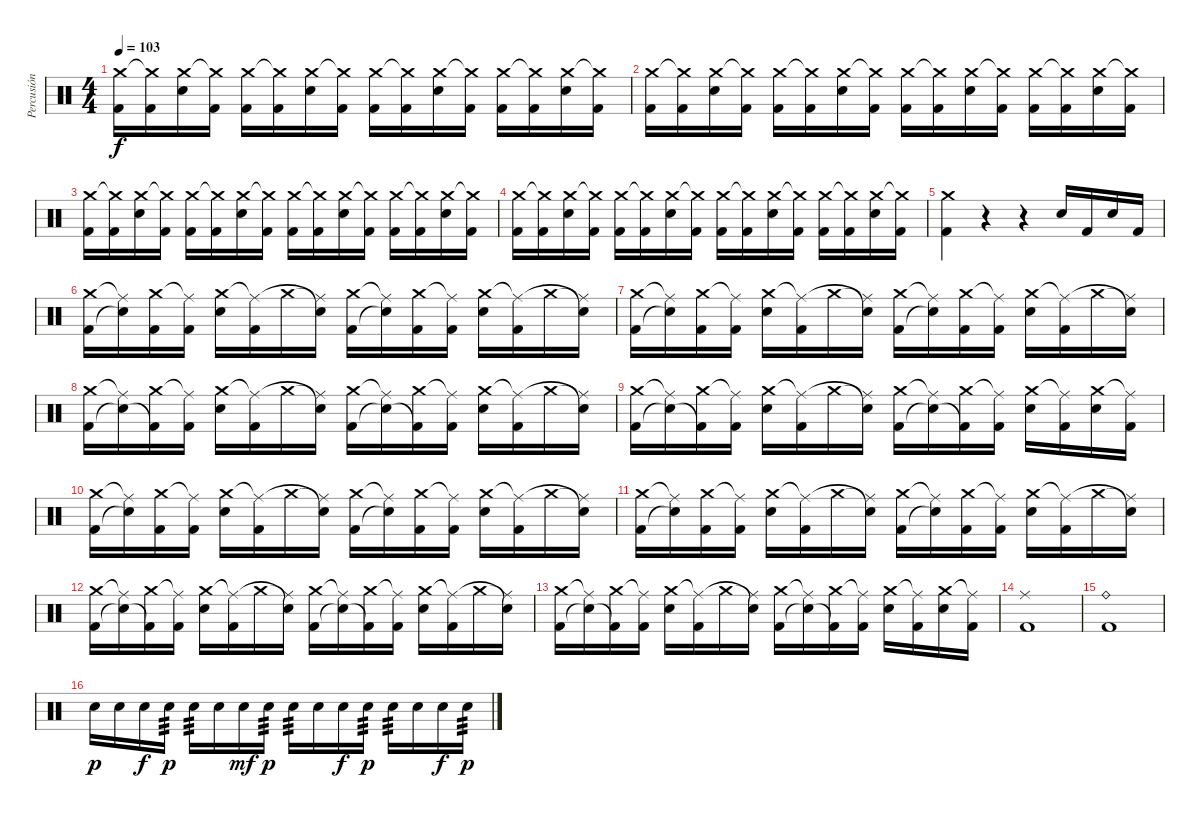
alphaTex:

\track ("Percusión" "Percusión") {instrument percussion}
\staff {score}
\articulation defaults
\ts (4 4)
\tempo 103
\clef neutral
\ks c
("Kick (hit) 2" "Crash medium (hit)").16{dy f} ("Kick (hit) 2" "Crash medium (hit)"{t}).16 ("Electric Snare (hit)" "Crash medium (hit)").16 ("Kick (hit) 2" "Crash medium (hit)"{t}).16 ("Kick (hit) 2" "Crash medium (hit)").16 ("Kick (hit) 2" "Crash medium (hit)"{t}).16 ("Electric Snare (hit)" "Crash medium (hit)").16 ("Kick (hit) 2" "Crash medium (hit)"{t}).16 ("Kick (hit) 2" "Crash medium (hit)").16 ("Kick (hit) 2" "Crash medium (hit)"{t}).16 ("Electric Snare (hit)" "Crash medium (hit)").16 ("Kick (hit) 2" "Crash medium (hit)"{t}).16 ("Kick (hit) 2" "Crash medium (hit)").16 ("Kick (hit) 2" "Crash medium (hit)"{t}).16 ("Electric Snare (hit)" "Crash medium (hit)").16 ("Kick (hit) 2" "Crash medium (hit)"{t}).16 |
("Kick (hit) 2" "Crash medium (hit)").16 ("Kick (hit) 2" "Crash medium (hit)"{t}).16 ("Electric Snare (hit)" "Crash medium (hit)").16 ("Kick (hit) 2" "Crash medium (hit)"{t}).16 ("Kick (hit) 2" "Crash medium (hit)").16 ("Kick (hit) 2" "Crash medium (hit)"{t}).16 ("Electric Snare (hit)" "Crash medium (hit)").16 ("Kick (hit) 2" "Crash medium (hit)"{t}).16 ("Kick (hit) 2" "Crash medium (hit)").16 ("Kick (hit) 2" "Crash medium (hit)"{t}).16 ("Electric Snare (hit)" "Crash medium (hit)").16 ("Kick (hit) 2" "Crash medium (hit)"{t}).16 ("Kick (hit) 2" "Crash medium (hit)").16 ("Kick (hit) 2" "Crash medium (hit)"{t}).16 ("Electric Snare (hit)" "Crash medium (hit)").16 ("Kick (hit) 2" "Crash medium (hit)"{t}).16 |
("Kick (hit) 2" "Crash medium (hit)").16 ("Kick (hit) 2" "Crash medium (hit)"{t}).16 ("Electric Snare (hit)" "Crash medium (hit)").16 ("Kick (hit) 2" "Crash medium (hit)"{t}).16 ("Kick (hit) 2" "Crash medium (hit)").16 ("Kick (hit) 2" "Crash medium (hit)"{t}).16 ("Electric Snare (hit)" "Crash medium (hit)").16 ("Kick (hit) 2" "Crash medium (hit)"{t}).16 ("Kick (hit) 2" "Crash medium (hit)").16 ("Kick (hit) 2" "Crash medium (hit)"{t}).16 ("Electric Snare (hit)" "Crash medium (hit)").16 ("Kick (hit) 2" "Crash medium (hit)"{t}).16 ("Kick (hit) 2" "Crash medium (hit)").16 ("Kick (hit) 2" "Crash medium (hit)"{t}).16 ("Electric Snare (hit)" "Crash medium (hit)").16 ("Kick (hit) 2" "Crash medium (hit)"{t}).16 |
("Kick (hit) 2" "Crash medium (hit)").16 ("Kick (hit) 2" "Crash medium (hit)"{t}).16 ("Electric Snare (hit)" "Crash medium (hit)").16 ("Kick (hit) 2" "Crash medium (hit)"{t}).16 ("Kick (hit) 2" "Crash medium (hit)").16 ("Kick (hit) 2" "Crash medium (hit)"{t}).16 ("Electric Snare (hit)" "Crash medium (hit)").16 ("Kick (hit) 2" "Crash medium (hit)"{t}).16 ("Kick (hit) 2" "Crash medium (hit)").16 ("Kick (hit) 2" "Crash medium (hit)"{t}).16 ("Electric Snare (hit)" "Crash medium (hit)").16 ("Kick (hit) 2" "Crash medium (hit)"{t}).16 ("Kick (hit) 2" "Crash medium (hit)").16 ("Kick (hit) 2" "Crash medium (hit)"{t}).16 ("Electric Snare (hit)" "Crash medium (hit)").16 ("Kick (hit) 2" "Crash medium (hit)"{t}).16 |
("Crash medium (hit)" "Kick (hit) 2").4 r.4 r.4 "Electric Snare (hit)".16 "Kick (hit) 2".16 "Snare (hit) 2".16 "Kick (hit) 2".16 |
("Kick (hit) 2" "Crash medium (hit)").16 ("Snare (hit)"{t} "Ride (middle)"{t}).16 ("Kick (hit) 2" "Crash medium (hit)").16 ("Kick (hit) 2" "Ride (middle)"{t}).16 ("Electric Snare (hit)" "Crash medium (hit)").16 ("Kick (hit) 2" "Ride (middle)"{t}).16 "Crash medium (hit)".16 ("Snare (hit)"{t} "Ride (middle)"{t}).16 ("Kick (hit) 2" "Crash medium (hit)").16 ("Snare (hit)"{t} "Ride (middle)"{t}).16 ("Kick (hit) 2" "Crash medium (hit)").16 ("Kick (hit) 2" "Ride (middle)"{t}).16 ("Electric Snare (hit)" "Crash medium (hit)").16 ("Kick (hit) 2" "Ride (middle)"{t}).16 "Crash medium (hit)".16 ("Snare (hit)"{t} "Ride (middle)"{t}).16 |
("Kick (hit) 2" "Crash medium (hit)").16 ("Snare (hit)"{t} "Ride (middle)"{t}).16 ("Kick (hit) 2" "Crash medium (hit)").16 ("Kick (hit) 2" "Ride (middle)"{t}).16 ("Electric Snare (hit)" "Crash medium (hit)").16 ("Kick (hit) 2" "Ride (middle)"{t}).16 "Crash medium (hit)".16 ("Snare (hit)"{t} "Ride (middle)"{t}).16 ("Kick (hit) 2" "Crash medium (hit)").16 ("Snare (hit)"{t} "Ride (middle)"{t}).16 ("Kick (hit) 2" "Crash medium (hit)").16 ("Kick (hit) 2" "Ride (middle)"{t}).16 ("Electric Snare (hit)" "Crash medium (hit)").16 ("Kick (hit) 2" "Ride (middle)"{t}).16 "Crash medium (hit)".16 ("Snare (hit)"{t} "Ride (middle)"{t}).16 |
("Kick (hit) 2" "Crash medium (hit)").16 ("Snare (hit)"{t} "Ride (middle)"{t}).16 ("Kick (hit) 2"{t} "Crash medium (hit)").16 ("Kick (hit) 2" "Ride (middle)"{t}).16 ("Electric Snare (hit)" "Crash medium (hit)").16 ("Kick (hit) 2" "Ride (middle)"{t}).16 "Crash medium (hit)".16 ("Snare (hit)"{t} "Ride (middle)"{t}).16 ("Kick (hit) 2" "Crash medium (hit)").16 ("Snare (hit)"{t} "Ride (middle)"{t}).16 ("Kick (hit) 2"{t} "Crash medium (hit)").16 ("Kick (hit) 2" "Ride (middle)"{t}).16 ("Electric Snare (hit)" "Crash medium (hit)").16 ("Kick (hit) 2" "Ride (middle)"{t}).16 "Crash medium (hit)".16 ("Snare (hit)"{t} "Ride (middle)"{t}).16 |
("Kick (hit) 2" "Crash medium (hit)").16 ("Snare (hit)"{t} "Ride (middle)"{t}).16 ("Kick (hit) 2"{t} "Crash medium (hit)").16 ("Kick (hit) 2" "Ride (middle)"{t}).16 ("Electric Snare (hit)" "Crash medium (hit)").16 ("Kick (hit) 2" "Ride (middle)"{t}).16 "Crash medium (hit)".16 ("Snare (hit)"{t} "Ride (middle)"{t}).16 ("Kick (hit) 2" "Crash medium (hit)").16 ("Snare (hit)"{t} "Ride (middle)"{t}).16 ("Kick (hit) 2"{t} "Crash medium (hit)").16 ("Kick (hit) 2" "Ride (middle)"{t}).16 ("Electric Snare (hit)" "Crash medium (hit)").16 ("Kick (hit) 2" "Ride (middle)"{t}).16 ("Electric Snare (hit)" "Crash medium (hit)").16 ("Kick (hit) 2" "Ride (middle)"{t}).16 |
("Kick (hit) 2" "Crash medium (hit)").16 ("Snare (hit)"{t} "Ride (middle)"{t}).16 ("Kick (hit) 2" "Crash medium (hit)").16 ("Kick (hit) 2" "Ride (middle)"{t}).16 ("Electric Snare (hit)" "Crash medium (hit)").16 ("Kick (hit) 2" "Ride (middle)"{t}).16 "Crash medium (hit)".16 ("Snare (hit)"{t} "Ride (middle)"{t}).16 ("Kick (hit) 2" "Crash medium (hit)").16 ("Snare (hit)"{t} "Ride (middle)"{t}).16 ("Kick (hit) 2" "Crash medium (hit)").16 ("Kick (hit) 2" "Ride (middle)"{t}).16 ("Electric Snare (hit)" "Crash medium (hit)").16 ("Kick (hit) 2" "Ride (middle)"{t}).16 "Crash medium (hit)".16 ("Snare (hit)"{t} "Ride (middle)"{t}).16 |
("Kick (hit) 2" "Crash medium (hit)").16 ("Snare (hit)"{t} "Ride (middle)"{t}).16 ("Kick (hit) 2" "Crash medium (hit)").16 ("Kick (hit) 2" "Ride (middle)"{t}).16 ("Electric Snare (hit)" "Crash medium (hit)").16 ("Kick (hit) 2" "Ride (middle)"{t}).16 "Crash medium (hit)".16 ("Snare (hit)"{t} "Ride (middle)"{t}).16 ("Kick (hit) 2" "Crash medium (hit)").16 ("Snare (hit)"{t} "Ride (middle)"{t}).16 ("Kick (hit) 2" "Crash medium (hit)").16 ("Kick (hit) 2" "Ride (middle)"{t}).16 ("Electric Snare (hit)" "Crash medium (hit)").16 ("Kick (hit) 2" "Ride (middle)"{t}).16 "Crash medium (hit)".16 ("Snare (hit)"{t} "Ride (middle)"{t}).16 |
("Kick (hit) 2" "Crash medium (hit)").16 ("Snare (hit)"{t} "Ride (middle)"{t}).16 ("Kick (hit) 2"{t} "Crash medium (hit)").16 ("Kick (hit) 2" "Ride (middle)"{t}).16 ("Electric Snare (hit)" "Crash medium (hit)").16 ("Kick (hit) 2" "Ride (middle)"{t}).16 "Crash medium (hit)".16 ("Snare (hit)"{t} "Ride (middle)"{t}).16 ("Kick (hit) 2" "Crash medium (hit)").16 ("Snare (hit)"{t} "Ride (middle)"{t}).16 ("Kick (hit) 2"{t} "Crash medium (hit)").16 ("Kick (hit) 2" "Ride (middle)"{t}).16 ("Electric Snare (hit)" "Crash medium (hit)").16 ("Kick (hit) 2" "Ride (middle)"{t}).16 "Crash medium (hit)".16 ("Snare (hit)"{t} "Ride (middle)"{t}).16 |
("Kick (hit) 2" "Crash medium (hit)").16 ("Snare (hit)"{t} "Ride (middle)"{t}).16 ("Kick (hit) 2"{t} "Crash medium (hit)").16 ("Kick (hit) 2" "Ride (middle)"{t}).16 ("Electric Snare (hit)" "Crash medium (hit)").16 ("Kick (hit) 2" "Ride (middle)"{t}).16 "Crash medium (hit)".16 ("Snare (hit)"{t} "Ride (middle)"{t}).16 ("Kick (hit) 2" "Crash medium (hit)").16 ("Snare (hit)"{t} "Ride (middle)"{t}).16 ("Kick (hit) 2"{t} "Crash medium (hit)").16 ("Kick (hit) 2" "Ride (middle)"{t}).16 ("Electric Snare (hit)" "Crash medium (hit)").16 ("Kick (hit) 2" "Ride (middle)"{t}).16 ("Electric Snare (hit)" "Crash medium (hit)").16 ("Kick (hit) 2" "Ride (middle)"{t}).16 |
("Ride (middle)" "Kick (hit) 2").1 |
("Ride (bell)" "Kick (hit) 2").1 |
"Electric Snare (hit)".16{dy p} "Electric Snare (hit)".16 "Electric Snare (hit)".16{dy f} "Electric Snare (hit)".16{tp 3 dy p} "Electric Snare (hit)".16{tp 3} "Electric Snare (hit)".16 "Electric Snare (hit)".16{dy mf} "Electric Snare (hit)".16{tp 3 dy p} "Electric Snare (hit)".16{tp 3} "Electric Snare (hit)".16 "Electric Snare (hit)".16{dy f} "Electric Snare (hit)".16{tp 3 dy p} "Electric Snare (hit)".16{tp 3} "Electric Snare (hit)".16 "Electric Snare (hit)".16{dy f} "Electric Snare (hit)".16{tp 3 dy p}
